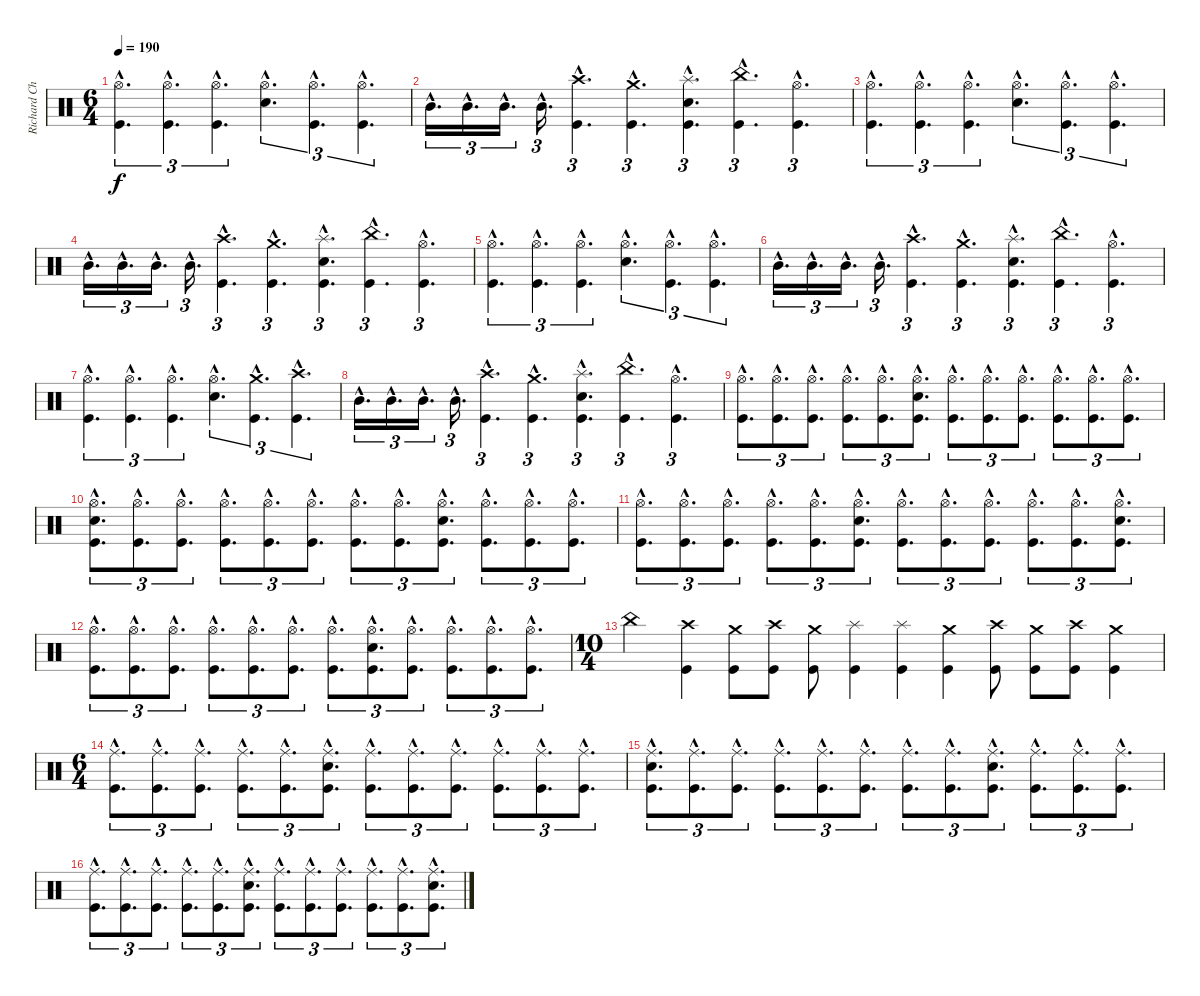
\track ("Richard Christy" "Richard Ch") {instrument percussion}
\staff {score}
\articulation defaults
\ts (6 4)
\tempo 190
\clef neutral
\ks c
("Hi-Hat (open)"{hac} "Kick (hit)"{hac}).4{d tu (3 2) dy f} ("Hi-Hat (open)"{hac} "Kick (hit)"{hac}).4{d tu (3 2)} ("Hi-Hat (open)"{hac} "Kick (hit)"{hac}).4{d tu (3 2)} ("Hi-Hat (open)"{hac} "Electric Snare (hit)"{hac}).4{d tu (3 2)} ("Hi-Hat (open)"{hac} "Kick (hit)"{hac}).4{d tu (3 2)} ("Hi-Hat (open)"{hac} "Kick (hit)"{hac}).4{d tu (3 2)} |
"Mid Tom (hit)"{hac}.16{d tu (3 2)} "Mid Tom (hit)"{hac}.16{d tu (3 2)} "Mid Tom (hit)"{hac}.16{d tu (3 2)} "Mid Tom (hit)"{hac}.16{d tu (3 2)} ("Crash high (hit)"{hac} "Kick (hit)"{hac}).4{d tu (3 2)} ("Crash medium (hit)"{hac} "Kick (hit)"{hac}).4{d tu (3 2)} ("Splash (hit)"{hac} "Electric Snare (hit)"{hac} "Kick (hit)"{hac}).4{d tu (3 2)} ("China (hit)"{hac} "Kick (hit)"{hac}).4{d tu (3 2)} ("Hi-Hat (open)"{hac} "Kick (hit)"{hac}).4{d tu (3 2)} |
("Hi-Hat (open)"{hac} "Kick (hit)"{hac}).4{d tu (3 2)} ("Hi-Hat (open)"{hac} "Kick (hit)"{hac}).4{d tu (3 2)} ("Hi-Hat (open)"{hac} "Kick (hit)"{hac}).4{d tu (3 2)} ("Hi-Hat (open)"{hac} "Electric Snare (hit)"{hac}).4{d tu (3 2)} ("Hi-Hat (open)"{hac} "Kick (hit)"{hac}).4{d tu (3 2)} ("Hi-Hat (open)"{hac} "Kick (hit)"{hac}).4{d tu (3 2)} |
"Mid Tom (hit)"{hac}.16{d tu (3 2)} "Mid Tom (hit)"{hac}.16{d tu (3 2)} "Mid Tom (hit)"{hac}.16{d tu (3 2)} "Mid Tom (hit)"{hac}.16{d tu (3 2)} ("Crash high (hit)"{hac} "Kick (hit)"{hac}).4{d tu (3 2)} ("Crash medium (hit)"{hac} "Kick (hit)"{hac}).4{d tu (3 2)} ("Splash (hit)"{hac} "Electric Snare (hit)"{hac} "Kick (hit)"{hac}).4{d tu (3 2)} ("China (hit)"{hac} "Kick (hit)"{hac}).4{d tu (3 2)} ("Hi-Hat (open)"{hac} "Kick (hit)"{hac}).4{d tu (3 2)} |
("Hi-Hat (open)"{hac} "Kick (hit)"{hac}).4{d tu (3 2)} ("Hi-Hat (open)"{hac} "Kick (hit)"{hac}).4{d tu (3 2)} ("Hi-Hat (open)"{hac} "Kick (hit)"{hac}).4{d tu (3 2)} ("Hi-Hat (open)"{hac} "Electric Snare (hit)"{hac}).4{d tu (3 2)} ("Hi-Hat (open)"{hac} "Kick (hit)"{hac}).4{d tu (3 2)} ("Hi-Hat (open)"{hac} "Kick (hit)"{hac}).4{d tu (3 2)} |
"Mid Tom (hit)"{hac}.16{d tu (3 2)} "Mid Tom (hit)"{hac}.16{d tu (3 2)} "Mid Tom (hit)"{hac}.16{d tu (3 2)} "Mid Tom (hit)"{hac}.16{d tu (3 2)} ("Crash high (hit)"{hac} "Kick (hit)"{hac}).4{d tu (3 2)} ("Crash medium (hit)"{hac} "Kick (hit)"{hac}).4{d tu (3 2)} ("Splash (hit)"{hac} "Electric Snare (hit)"{hac} "Kick (hit)"{hac}).4{d tu (3 2)} ("China (hit)"{hac} "Kick (hit)"{hac}).4{d tu (3 2)} ("Hi-Hat (open)"{hac} "Kick (hit)"{hac}).4{d tu (3 2)} |
("Hi-Hat (open)"{hac} "Kick (hit)"{hac}).4{d tu (3 2)} ("Hi-Hat (open)"{hac} "Kick (hit)"{hac}).4{d tu (3 2)} ("Hi-Hat (open)"{hac} "Kick (hit)"{hac}).4{d tu (3 2)} ("Hi-Hat (open)"{hac} "Electric Snare (hit)"{hac}).4{d tu (3 2)} ("Crash medium (hit)"{hac} "Kick (hit)"{hac}).4{d tu (3 2)} ("Crash high (hit)"{hac} "Kick (hit)"{hac}).4{d tu (3 2)} |
"Mid Tom (hit)"{hac}.16{d tu (3 2)} "Mid Tom (hit)"{hac}.16{d tu (3 2)} "Mid Tom (hit)"{hac}.16{d tu (3 2)} "Mid Tom (hit)"{hac}.16{d tu (3 2)} ("Crash high (hit)"{hac} "Kick (hit)"{hac}).4{d tu (3 2)} ("Crash medium (hit)"{hac} "Kick (hit)"{hac}).4{d tu (3 2)} ("Splash (hit)"{hac} "Electric Snare (hit)"{hac} "Kick (hit)"{hac}).4{d tu (3 2)} ("China (hit)"{hac} "Kick (hit)"{hac}).4{d tu (3 2)} ("Hi-Hat (open)"{hac} "Kick (hit)"{hac}).4{d tu (3 2)} |
("Hi-Hat (open)"{hac} "Kick (hit)"{hac}).8{d tu (3 2)} ("Hi-Hat (open)"{hac} "Kick (hit)"{hac}).8{d tu (3 2)} ("Hi-Hat (open)"{hac} "Kick (hit)"{hac}).8{d tu (3 2)} ("Hi-Hat (open)"{hac} "Kick (hit)"{hac}).8{d tu (3 2)} ("Hi-Hat (open)"{hac} "Kick (hit)"{hac}).8{d tu (3 2)} ("Hi-Hat (open)"{hac} "Electric Snare (hit)"{hac} "Kick (hit)"{hac}).8{d tu (3 2)} ("Hi-Hat (open)"{hac} "Kick (hit)"{hac}).8{d tu (3 2)} ("Hi-Hat (open)"{hac} "Kick (hit)"{hac}).8{d tu (3 2)} ("Hi-Hat (open)"{hac} "Kick (hit)"{hac}).8{d tu (3 2)} ("Hi-Hat (open)"{hac} "Kick (hit)"{hac}).8{d tu (3 2)} ("Hi-Hat (open)"{hac} "Kick (hit)"{hac}).8{d tu (3 2)} ("Hi-Hat (open)"{hac} "Kick (hit)"{hac}).8{d tu (3 2)} |
("Hi-Hat (open)"{hac} "Electric Snare (hit)"{hac} "Kick (hit)"{hac}).8{d tu (3 2)} ("Hi-Hat (open)"{hac} "Kick (hit)"{hac}).8{d tu (3 2)} ("Hi-Hat (open)"{hac} "Kick (hit)"{hac}).8{d tu (3 2)} ("Hi-Hat (open)"{hac} "Kick (hit)"{hac}).8{d tu (3 2)} ("Hi-Hat (open)"{hac} "Kick (hit)"{hac}).8{d tu (3 2)} ("Hi-Hat (open)"{hac} "Kick (hit)"{hac}).8{d tu (3 2)} ("Hi-Hat (open)"{hac} "Kick (hit)"{hac}).8{d tu (3 2)} ("Hi-Hat (open)"{hac} "Kick (hit)"{hac}).8{d tu (3 2)} ("Hi-Hat (open)"{hac} "Electric Snare (hit)"{hac} "Kick (hit)"{hac}).8{d tu (3 2)} ("Hi-Hat (open)"{hac} "Kick (hit)"{hac}).8{d tu (3 2)} ("Hi-Hat (open)"{hac} "Kick (hit)"{hac}).8{d tu (3 2)} ("Hi-Hat (open)"{hac} "Kick (hit)"{hac}).8{d tu (3 2)} |
("Hi-Hat (open)"{hac} "Kick (hit)"{hac}).8{d tu (3 2)} ("Hi-Hat (open)"{hac} "Kick (hit)"{hac}).8{d tu (3 2)} ("Hi-Hat (open)"{hac} "Kick (hit)"{hac}).8{d tu (3 2)} ("Hi-Hat (open)"{hac} "Kick (hit)"{hac}).8{d tu (3 2)} ("Hi-Hat (open)"{hac} "Kick (hit)"{hac}).8{d tu (3 2)} ("Hi-Hat (open)"{hac} "Electric Snare (hit)"{hac} "Kick (hit)"{hac}).8{d tu (3 2)} ("Hi-Hat (open)"{hac} "Kick (hit)"{hac}).8{d tu (3 2)} ("Hi-Hat (open)"{hac} "Kick (hit)"{hac}).8{d tu (3 2)} ("Hi-Hat (open)"{hac} "Kick (hit)"{hac}).8{d tu (3 2)} ("Hi-Hat (open)"{hac} "Kick (hit)"{hac}).8{d tu (3 2)} ("Hi-Hat (open)"{hac} "Kick (hit)"{hac}).8{d tu (3 2)} ("Hi-Hat (open)"{hac} "Electric Snare (hit)"{hac} "Kick (hit)"{hac}).8{d tu (3 2)} |
("Hi-Hat (open)"{hac} "Kick (hit)"{hac}).8{d tu (3 2)} ("Hi-Hat (open)"{hac} "Kick (hit)"{hac}).8{d tu (3 2)} ("Hi-Hat (open)"{hac} "Kick (hit)"{hac}).8{d tu (3 2)} ("Hi-Hat (open)"{hac} "Kick (hit)"{hac}).8{d tu (3 2)} ("Hi-Hat (open)"{hac} "Kick (hit)"{hac}).8{d tu (3 2)} ("Hi-Hat (open)"{hac} "Kick (hit)"{hac}).8{d tu (3 2)} ("Hi-Hat (open)"{hac} "Kick (hit)"{hac}).8{d tu (3 2)} ("Hi-Hat (open)"{hac} "Electric Snare (hit)"{hac} "Kick (hit)"{hac}).8{d tu (3 2)} ("Hi-Hat (open)"{hac} "Kick (hit)"{hac}).8{d tu (3 2)} ("Hi-Hat (open)"{hac} "Kick (hit)"{hac}).8{d tu (3 2)} ("Hi-Hat (open)"{hac} "Kick (hit)"{hac}).8{d tu (3 2)} ("Hi-Hat (open)"{hac} "Kick (hit)"{hac}).8{d tu (3 2)} |
\ts (10 4)
"China (hit)".2 ("Crash high (hit)" "Kick (hit)").4 ("Crash medium (hit)" "Kick (hit)").8 ("Crash high (hit)" "Kick (hit)").8 ("Crash medium (hit)" "Kick (hit)").8 ("Splash (hit)" "Kick (hit)").4 ("Splash (hit)" "Kick (hit)").4 ("Crash medium (hit)" "Kick (hit)").4 ("Crash high (hit)" "Kick (hit)").8 ("Crash medium (hit)" "Kick (hit)").8 ("Crash high (hit)" "Kick (hit)").8 ("Crash medium (hit)" "Kick (hit)").4 |
\ts (6 4)
("Ride (middle)"{hac} "Kick (hit)"{hac}).8{d tu (3 2)} ("Ride (middle)"{hac} "Kick (hit)"{hac}).8{d tu (3 2)} ("Ride (middle)"{hac} "Kick (hit)"{hac}).8{d tu (3 2)} ("Ride (middle)"{hac} "Kick (hit)"{hac}).8{d tu (3 2)} ("Ride (middle)"{hac} "Kick (hit)"{hac}).8{d tu (3 2)} ("Ride (middle)"{hac} "Electric Snare (hit)"{hac} "Kick (hit)"{hac}).8{d tu (3 2)} ("Ride (middle)"{hac} "Kick (hit)"{hac}).8{d tu (3 2)} ("Ride (middle)"{hac} "Kick (hit)"{hac}).8{d tu (3 2)} ("Ride (middle)"{hac} "Kick (hit)"{hac}).8{d tu (3 2)} ("Ride (middle)"{hac} "Kick (hit)"{hac}).8{d tu (3 2)} ("Ride (middle)"{hac} "Kick (hit)"{hac}).8{d tu (3 2)} ("Ride (middle)"{hac} "Kick (hit)"{hac}).8{d tu (3 2)} |
("Ride (middle)"{hac} "Electric Snare (hit)"{hac} "Kick (hit)"{hac}).8{d tu (3 2)} ("Ride (middle)"{hac} "Kick (hit)"{hac}).8{d tu (3 2)} ("Ride (middle)"{hac} "Kick (hit)"{hac}).8{d tu (3 2)} ("Ride (middle)"{hac} "Kick (hit)"{hac}).8{d tu (3 2)} ("Ride (middle)"{hac} "Kick (hit)"{hac}).8{d tu (3 2)} ("Ride (middle)"{hac} "Kick (hit)"{hac}).8{d tu (3 2)} ("Ride (middle)"{hac} "Kick (hit)"{hac}).8{d tu (3 2)} ("Ride (middle)"{hac} "Kick (hit)"{hac}).8{d tu (3 2)} ("Ride (middle)"{hac} "Electric Snare (hit)"{hac} "Kick (hit)"{hac}).8{d tu (3 2)} ("Ride (middle)"{hac} "Kick (hit)"{hac}).8{d tu (3 2)} ("Ride (middle)"{hac} "Kick (hit)"{hac}).8{d tu (3 2)} ("Ride (middle)"{hac} "Kick (hit)"{hac}).8{d tu (3 2)} |
("Ride (middle)"{hac} "Kick (hit)"{hac}).8{d tu (3 2)} ("Ride (middle)"{hac} "Kick (hit)"{hac}).8{d tu (3 2)} ("Ride (middle)"{hac} "Kick (hit)"{hac}).8{d tu (3 2)} ("Ride (middle)"{hac} "Kick (hit)"{hac}).8{d tu (3 2)} ("Ride (middle)"{hac} "Kick (hit)"{hac}).8{d tu (3 2)} ("Ride (middle)"{hac} "Electric Snare (hit)"{hac} "Kick (hit)"{hac}).8{d tu (3 2)} ("Ride (middle)"{hac} "Kick (hit)"{hac}).8{d tu (3 2)} ("Ride (middle)"{hac} "Kick (hit)"{hac}).8{d tu (3 2)} ("Ride (middle)"{hac} "Kick (hit)"{hac}).8{d tu (3 2)} ("Ride (middle)"{hac} "Kick (hit)"{hac}).8{d tu (3 2)} ("Ride (middle)"{hac} "Kick (hit)"{hac}).8{d tu (3 2)} ("Ride (middle)"{hac} "Electric Snare (hit)"{hac} "Kick (hit)"{hac}).8{d tu (3 2)}
